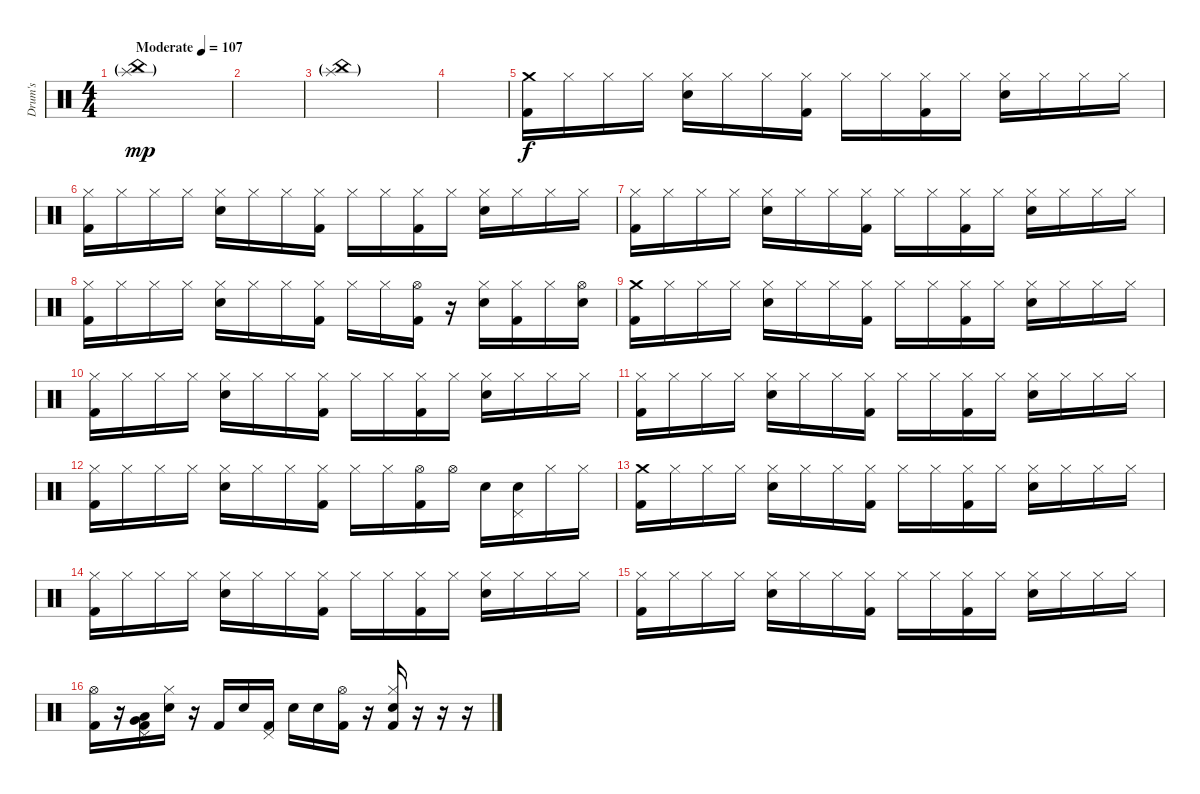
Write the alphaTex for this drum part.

\track ("Drum's" "Drum's") {instrument percussion}
\staff {score}
\articulation defaults
\ts (4 4)
\tempo (107 "Moderate")
\clef neutral
\ks c
("Splash (hit)"{g} "China (hit)"{g}).1{dy mp} |
|
("Splash (hit)"{g} "China (hit)"{g}).1 |
|
("Crash medium (hit)" "Kick (hit) 2").16{dy f} "Hi-Hat (closed)".16 "Hi-Hat (closed)".16 "Hi-Hat (closed)".16 ("Hi-Hat (closed)" "Snare (hit) 2").16 "Hi-Hat (closed)".16 "Hi-Hat (closed)".16 ("Hi-Hat (closed)" "Kick (hit) 2").16 "Hi-Hat (closed)".16 "Hi-Hat (closed)".16 ("Hi-Hat (closed)" "Kick (hit) 2").16 "Hi-Hat (closed)".16 ("Hi-Hat (closed)" "Snare (hit) 2").16 "Hi-Hat (closed)".16 "Hi-Hat (closed)".16 "Hi-Hat (closed)".16 |
("Hi-Hat (closed)" "Kick (hit) 2").16 "Hi-Hat (closed)".16 "Hi-Hat (closed)".16 "Hi-Hat (closed)".16 ("Hi-Hat (closed)" "Snare (hit) 2").16 "Hi-Hat (closed)".16 "Hi-Hat (closed)".16 ("Hi-Hat (closed)" "Kick (hit) 2").16 "Hi-Hat (closed)".16 "Hi-Hat (closed)".16 ("Hi-Hat (closed)" "Kick (hit) 2").16 "Hi-Hat (closed)".16 ("Hi-Hat (closed)" "Snare (hit) 2").16 "Hi-Hat (closed)".16 "Hi-Hat (closed)".16 "Hi-Hat (closed)".16 |
("Hi-Hat (closed)" "Kick (hit) 2").16 "Hi-Hat (closed)".16 "Hi-Hat (closed)".16 "Hi-Hat (closed)".16 ("Hi-Hat (closed)" "Snare (hit) 2").16 "Hi-Hat (closed)".16 "Hi-Hat (closed)".16 ("Hi-Hat (closed)" "Kick (hit) 2").16 "Hi-Hat (closed)".16 "Hi-Hat (closed)".16 ("Hi-Hat (closed)" "Kick (hit) 2").16 "Hi-Hat (closed)".16 ("Hi-Hat (closed)" "Snare (hit) 2").16 "Hi-Hat (closed)".16 "Hi-Hat (closed)".16 "Hi-Hat (closed)".16 |
("Hi-Hat (closed)" "Kick (hit) 2").16 "Hi-Hat (closed)".16 "Hi-Hat (closed)".16 "Hi-Hat (closed)".16 ("Hi-Hat (closed)" "Snare (hit) 2").16 "Hi-Hat (closed)".16 "Hi-Hat (closed)".16 ("Hi-Hat (closed)" "Kick (hit) 2").16 "Hi-Hat (closed)".16 "Hi-Hat (closed)".16 ("Hi-Hat (open)" "Kick (hit) 2").16 r.16 ("Hi-Hat (closed)" "Snare (hit) 2").16 ("Hi-Hat (closed)" "Kick (hit) 2").16 "Hi-Hat (closed)".16 ("Hi-Hat (open)" "Snare (hit) 2").16 |
("Crash medium (hit)" "Kick (hit) 2").16 "Hi-Hat (closed)".16 "Hi-Hat (closed)".16 "Hi-Hat (closed)".16 ("Hi-Hat (closed)" "Snare (hit) 2").16 "Hi-Hat (closed)".16 "Hi-Hat (closed)".16 ("Hi-Hat (closed)" "Kick (hit) 2").16 "Hi-Hat (closed)".16 "Hi-Hat (closed)".16 ("Hi-Hat (closed)" "Kick (hit) 2").16 "Hi-Hat (closed)".16 ("Hi-Hat (closed)" "Snare (hit) 2").16 "Hi-Hat (closed)".16 "Hi-Hat (closed)".16 "Hi-Hat (closed)".16 |
("Hi-Hat (closed)" "Kick (hit) 2").16 "Hi-Hat (closed)".16 "Hi-Hat (closed)".16 "Hi-Hat (closed)".16 ("Hi-Hat (closed)" "Snare (hit) 2").16 "Hi-Hat (closed)".16 "Hi-Hat (closed)".16 ("Hi-Hat (closed)" "Kick (hit) 2").16 "Hi-Hat (closed)".16 "Hi-Hat (closed)".16 ("Hi-Hat (closed)" "Kick (hit) 2").16 "Hi-Hat (closed)".16 ("Hi-Hat (closed)" "Snare (hit) 2").16 "Hi-Hat (closed)".16 "Hi-Hat (closed)".16 "Hi-Hat (closed)".16 |
("Hi-Hat (closed)" "Kick (hit) 2").16 "Hi-Hat (closed)".16 "Hi-Hat (closed)".16 "Hi-Hat (closed)".16 ("Hi-Hat (closed)" "Snare (hit) 2").16 "Hi-Hat (closed)".16 "Hi-Hat (closed)".16 ("Hi-Hat (closed)" "Kick (hit) 2").16 "Hi-Hat (closed)".16 "Hi-Hat (closed)".16 ("Hi-Hat (closed)" "Kick (hit) 2").16 "Hi-Hat (closed)".16 ("Hi-Hat (closed)" "Snare (hit) 2").16 "Hi-Hat (closed)".16 "Hi-Hat (closed)".16 "Hi-Hat (closed)".16 |
("Hi-Hat (closed)" "Kick (hit) 2").16 "Hi-Hat (closed)".16 "Hi-Hat (closed)".16 "Hi-Hat (closed)".16 ("Hi-Hat (closed)" "Snare (hit) 2").16 "Hi-Hat (closed)".16 "Hi-Hat (closed)".16 ("Hi-Hat (closed)" "Kick (hit) 2").16 "Hi-Hat (closed)".16 "Hi-Hat (closed)".16 ("Hi-Hat (open)" "Kick (hit) 2").16 "Hi-Hat (open)".16 "Snare (hit) 2".16 ("Pedal Hi-Hat (hit)" "Snare (hit) 2").16 "Hi-Hat (closed)".16 "Hi-Hat (closed)".16 |
("Crash medium (hit)" "Kick (hit) 2").16 "Hi-Hat (closed)".16 "Hi-Hat (closed)".16 "Hi-Hat (closed)".16 ("Hi-Hat (closed)" "Snare (hit) 2").16 "Hi-Hat (closed)".16 "Hi-Hat (closed)".16 ("Hi-Hat (closed)" "Kick (hit) 2").16 "Hi-Hat (closed)".16 "Hi-Hat (closed)".16 ("Hi-Hat (closed)" "Kick (hit) 2").16 "Hi-Hat (closed)".16 ("Hi-Hat (closed)" "Snare (hit) 2").16 "Hi-Hat (closed)".16 "Hi-Hat (closed)".16 "Hi-Hat (closed)".16 |
("Hi-Hat (closed)" "Kick (hit) 2").16 "Hi-Hat (closed)".16 "Hi-Hat (closed)".16 "Hi-Hat (closed)".16 ("Hi-Hat (closed)" "Snare (hit) 2").16 "Hi-Hat (closed)".16 "Hi-Hat (closed)".16 ("Hi-Hat (closed)" "Kick (hit) 2").16 "Hi-Hat (closed)".16 "Hi-Hat (closed)".16 ("Hi-Hat (closed)" "Kick (hit) 2").16 "Hi-Hat (closed)".16 ("Hi-Hat (closed)" "Snare (hit) 2").16 "Hi-Hat (closed)".16 "Hi-Hat (closed)".16 "Hi-Hat (closed)".16 |
("Hi-Hat (closed)" "Kick (hit) 2").16 "Hi-Hat (closed)".16 "Hi-Hat (closed)".16 "Hi-Hat (closed)".16 ("Hi-Hat (closed)" "Snare (hit) 2").16 "Hi-Hat (closed)".16 "Hi-Hat (closed)".16 ("Hi-Hat (closed)" "Kick (hit) 2").16 "Hi-Hat (closed)".16 "Hi-Hat (closed)".16 ("Hi-Hat (closed)" "Kick (hit) 2").16 "Hi-Hat (closed)".16 ("Hi-Hat (closed)" "Snare (hit) 2").16 "Hi-Hat (closed)".16 "Hi-Hat (closed)".16 "Hi-Hat (closed)".16 |
("Hi-Hat (open)" "Kick (hit) 2").16 r.16 ("Pedal Hi-Hat (hit)" "Low Floor Tom (hit)" "Very Low Tom (hit)" "Kick (hit) 2").16 ("Hi-Hat (closed)" "Snare (hit) 2").16 r.16 "Kick (hit) 2".16 "Snare (hit) 2".16 ("Pedal Hi-Hat (hit)" "Kick (hit) 2").16 "Snare (hit) 2".16 "Snare (hit) 2".16 ("Hi-Hat (open)" "Kick (hit) 2").16 r.16 ("Hi-Hat (closed)" "Snare (hit) 2" "Kick (hit) 2").16 r.16 r.16 r.16
